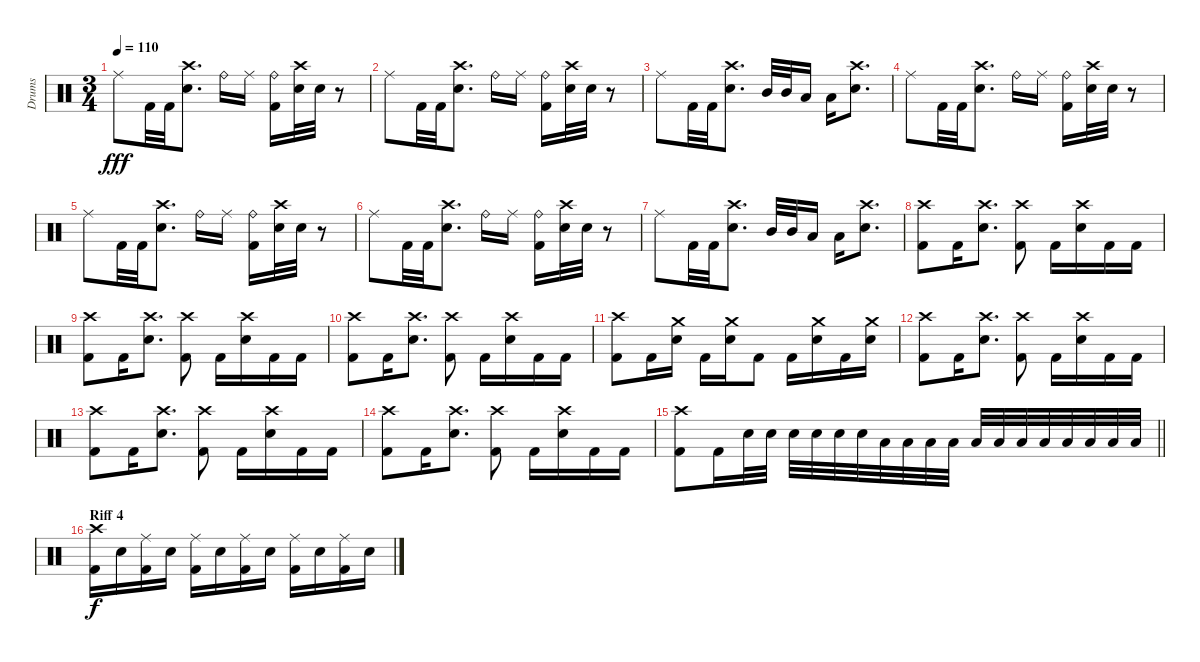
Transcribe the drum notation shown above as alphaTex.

\track ("Drums" "Drums") {instrument percussion}
\staff {score}
\articulation defaults
\ts (3 4)
\tempo 110
\clef neutral
\ks c "Ride (middle)".8{dy fff} "Kick (hit) 2".32 "Kick (hit) 2".32
("Crash high (hit)" "Electric Snare (hit)").8{d} "Ride (bell)".16 "Ride (middle)".16 ("Ride (bell)" "Kick (hit) 2").16 ("Crash high (hit)" "Electric Snare (hit)").32 "Electric Snare (hit)".32 r.8 |
"Ride (middle)".8 "Kick (hit) 2".32 "Kick (hit) 2".32 ("Crash high (hit)" "Electric Snare (hit)").8{d} "Ride (bell)".16 "Ride (middle)".16 ("Ride (bell)" "Kick (hit) 2").16 ("Crash high (hit)" "Electric Snare (hit)").32 "Electric Snare (hit)".32 r.8 |
"Ride (middle)".8 "Kick (hit) 2".32 "Kick (hit) 2".32 ("Crash high (hit)" "Electric Snare (hit)").8{d} "Mid Tom (hit)".32 "Mid Tom (hit)".32 "Low Tom (hit)".16 "Low Floor Tom (hit)".16 ("Crash high (hit)" "Electric Snare (hit)").8{d} |
"Ride (middle)".8 "Kick (hit) 2".32 "Kick (hit) 2".32 ("Crash high (hit)" "Electric Snare (hit)").8{d} "Ride (bell)".16 "Ride (middle)".16 ("Ride (bell)" "Kick (hit) 2").16 ("Crash high (hit)" "Electric Snare (hit)").32 "Electric Snare (hit)".32 r.8 |
"Ride (middle)".8 "Kick (hit) 2".32 "Kick (hit) 2".32 ("Crash high (hit)" "Electric Snare (hit)").8{d} "Ride (bell)".16 "Ride (middle)".16 ("Ride (bell)" "Kick (hit) 2").16 ("Crash high (hit)" "Electric Snare (hit)").32 "Electric Snare (hit)".32 r.8 |
"Ride (middle)".8 "Kick (hit) 2".32 "Kick (hit) 2".32 ("Crash high (hit)" "Electric Snare (hit)").8{d} "Ride (bell)".16 "Ride (middle)".16 ("Ride (bell)" "Kick (hit) 2").16 ("Crash high (hit)" "Electric Snare (hit)").32 "Electric Snare (hit)".32 r.8 |
"Ride (middle)".8 "Kick (hit) 2".32 "Kick (hit) 2".32 ("Crash high (hit)" "Electric Snare (hit)").8{d} "Mid Tom (hit)".32 "Mid Tom (hit)".32 "Low Tom (hit)".16 "Low Floor Tom (hit)".16 ("Crash high (hit)" "Electric Snare (hit)").8{d} |
("Crash high (hit)" "Kick (hit) 2").8 "Kick (hit) 2".16 ("Crash high (hit)" "Electric Snare (hit)").8{d} ("Crash high (hit)" "Kick (hit) 2").8 "Kick (hit) 2".16 ("Crash high (hit)" "Electric Snare (hit)").16 "Kick (hit) 2".16 "Kick (hit) 2".16 |
("Crash high (hit)" "Kick (hit) 2").8 "Kick (hit) 2".16 ("Crash high (hit)" "Electric Snare (hit)").8{d} ("Crash high (hit)" "Kick (hit) 2").8 "Kick (hit) 2".16 ("Crash high (hit)" "Electric Snare (hit)").16 "Kick (hit) 2".16 "Kick (hit) 2".16 |
("Crash high (hit)" "Kick (hit) 2").8 "Kick (hit) 2".16 ("Crash high (hit)" "Electric Snare (hit)").8{d} ("Crash high (hit)" "Kick (hit) 2").8 "Kick (hit) 2".16 ("Crash high (hit)" "Electric Snare (hit)").16 "Kick (hit) 2".16 "Kick (hit) 2".16 |
("Crash high (hit)" "Kick (hit) 2").8 "Kick (hit) 2".16 ("Crash medium (hit)" "Electric Snare (hit)").16 "Kick (hit) 2".16 ("Crash medium (hit)" "Electric Snare (hit)").16 "Kick (hit) 2".8 "Kick (hit) 2".16 ("Crash medium (hit)" "Electric Snare (hit)").16 "Kick (hit) 2".16 ("Crash medium (hit)" "Electric Snare (hit)").16 |
("Crash high (hit)" "Kick (hit) 2").8 "Kick (hit) 2".16 ("Crash high (hit)" "Electric Snare (hit)").8{d} ("Crash high (hit)" "Kick (hit) 2").8 "Kick (hit) 2".16 ("Crash high (hit)" "Electric Snare (hit)").16 "Kick (hit) 2".16 "Kick (hit) 2".16 |
("Crash high (hit)" "Kick (hit) 2").8 "Kick (hit) 2".16 ("Crash high (hit)" "Electric Snare (hit)").8{d} ("Crash high (hit)" "Kick (hit) 2").8 "Kick (hit) 2".16 ("Crash high (hit)" "Electric Snare (hit)").16 "Kick (hit) 2".16 "Kick (hit) 2".16 |
("Crash high (hit)" "Kick (hit) 2").8 "Kick (hit) 2".16 ("Crash high (hit)" "Electric Snare (hit)").8{d} ("Crash high (hit)" "Kick (hit) 2").8 "Kick (hit) 2".16 ("Crash high (hit)" "Electric Snare (hit)").16 "Kick (hit) 2".16 "Kick (hit) 2".16 |
\barLineRight lightlight
("Crash high (hit)" "Kick (hit) 2").8 "Kick (hit) 2".16 "Electric Snare (hit)".32 "Electric Snare (hit)".32 "Electric Snare (hit)".32 "Electric Snare (hit)".32 "Electric Snare (hit)".32 "Electric Snare (hit)".32 "Low Tom (hit)".32 "Low Tom (hit)".32 "Low Tom (hit)".32 "Low Tom (hit)".32 "Low Tom (hit)".32 "Low Tom (hit)".32 "Low Floor Tom (hit)".32 "Low Floor Tom (hit)".32 "Low Floor Tom (hit)".32 "Low Floor Tom (hit)".32 "Low Floor Tom (hit)".32 "Low Floor Tom (hit)".32 |
\section ("" "Riff 4")
("Crash high (hit)" "Kick (hit) 2").16{dy f} "Electric Snare (hit)".16 ("Ride (middle)" "Kick (hit) 2").16 "Electric Snare (hit)".16 ("Ride (middle)" "Kick (hit) 2").16 "Electric Snare (hit)".16 ("Ride (middle)" "Kick (hit) 2").16 "Electric Snare (hit)".16 ("Ride (middle)" "Kick (hit) 2").16 "Electric Snare (hit)".16 ("Ride (middle)" "Kick (hit) 2").16 "Electric Snare (hit)".16
